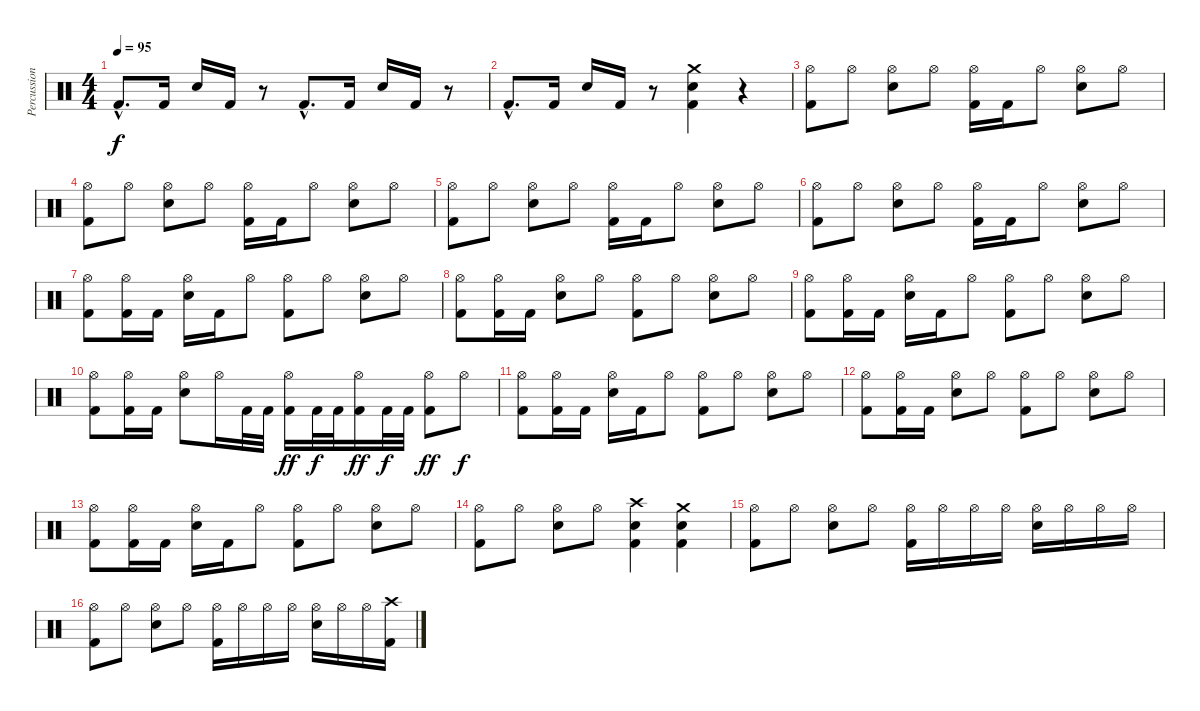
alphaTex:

\track ("Percussion" "Percussion") {instrument percussion}
\staff {score}
\articulation defaults
\ts (4 4)
\tempo 95
\clef neutral
\ks c "Kick (hit) 2"{hac}.8{d dy f} "Kick (hit) 2".16 "Snare (hit) 2".16 "Kick (hit) 2".16
r.8 "Kick (hit) 2"{hac}.8{d} "Kick (hit) 2".16 "Snare (hit) 2".16 "Kick (hit) 2".16 r.8 |
"Kick (hit) 2"{hac}.8{d} "Kick (hit) 2".16 "Snare (hit) 2".16 "Kick (hit) 2".16 r.8 ("Crash medium (hit)" "Snare (hit) 2" "Kick (hit) 2").4 r.4 |
("Hi-Hat (open)" "Kick (hit) 2").8 "Hi-Hat (open)".8 ("Hi-Hat (open)" "Snare (hit) 2").8 "Hi-Hat (open)".8 ("Hi-Hat (open)" "Kick (hit) 2").16 "Kick (hit) 2".16 "Hi-Hat (open)".8 ("Hi-Hat (open)" "Snare (hit) 2").8 "Hi-Hat (open)".8 |
("Hi-Hat (open)" "Kick (hit) 2").8 "Hi-Hat (open)".8 ("Hi-Hat (open)" "Snare (hit) 2").8 "Hi-Hat (open)".8 ("Hi-Hat (open)" "Kick (hit) 2").16 "Kick (hit) 2".16 "Hi-Hat (open)".8 ("Hi-Hat (open)" "Snare (hit) 2").8 "Hi-Hat (open)".8 |
("Hi-Hat (open)" "Kick (hit) 2").8 "Hi-Hat (open)".8 ("Hi-Hat (open)" "Snare (hit) 2").8 "Hi-Hat (open)".8 ("Hi-Hat (open)" "Kick (hit) 2").16 "Kick (hit) 2".16 "Hi-Hat (open)".8 ("Hi-Hat (open)" "Snare (hit) 2").8 "Hi-Hat (open)".8 |
("Hi-Hat (open)" "Kick (hit) 2").8 "Hi-Hat (open)".8 ("Hi-Hat (open)" "Snare (hit) 2").8 "Hi-Hat (open)".8 ("Hi-Hat (open)" "Kick (hit) 2").16 "Kick (hit) 2".16 "Hi-Hat (open)".8 ("Hi-Hat (open)" "Snare (hit) 2").8 "Hi-Hat (open)".8 |
("Hi-Hat (open)" "Kick (hit) 2").8 ("Hi-Hat (open)" "Kick (hit) 2").16 "Kick (hit) 2".16 ("Hi-Hat (open)" "Snare (hit) 2").16 "Kick (hit) 2".16 "Hi-Hat (open)".8 ("Hi-Hat (open)" "Kick (hit) 2").8 "Hi-Hat (open)".8 ("Hi-Hat (open)" "Snare (hit) 2").8 "Hi-Hat (open)".8 |
("Hi-Hat (open)" "Kick (hit) 2").8 ("Hi-Hat (open)" "Kick (hit) 2").16 "Kick (hit) 2".16 ("Hi-Hat (open)" "Snare (hit) 2").8 "Hi-Hat (open)".8 ("Hi-Hat (open)" "Kick (hit) 2").8 "Hi-Hat (open)".8 ("Hi-Hat (open)" "Snare (hit) 2").8 "Hi-Hat (open)".8 |
("Hi-Hat (open)" "Kick (hit) 2").8 ("Hi-Hat (open)" "Kick (hit) 2").16 "Kick (hit) 2".16 ("Hi-Hat (open)" "Snare (hit) 2").16 "Kick (hit) 2".16 "Hi-Hat (open)".8 ("Hi-Hat (open)" "Kick (hit) 2").8 "Hi-Hat (open)".8 ("Hi-Hat (open)" "Snare (hit) 2").8 "Hi-Hat (open)".8 |
("Hi-Hat (open)" "Kick (hit) 2").8 ("Hi-Hat (open)" "Kick (hit) 2").16 "Kick (hit) 2".16 ("Hi-Hat (open)" "Snare (hit) 2").8 "Hi-Hat (open)".16 "Kick (hit) 2".32 "Kick (hit) 2".32 ("Hi-Hat (open)" "Kick (hit) 2").16{dy ff} "Kick (hit) 2".32{dy f} "Kick (hit) 2".32 ("Hi-Hat (open)" "Kick (hit) 2").16{dy ff} "Kick (hit) 2".32{dy f} "Kick (hit) 2".32 ("Hi-Hat (open)" "Kick (hit) 2").8{dy ff} "Hi-Hat (open)".8{dy f} |
("Hi-Hat (open)" "Kick (hit) 2").8 ("Hi-Hat (open)" "Kick (hit) 2").16 "Kick (hit) 2".16 ("Hi-Hat (open)" "Snare (hit) 2").16 "Kick (hit) 2".16 "Hi-Hat (open)".8 ("Hi-Hat (open)" "Kick (hit) 2").8 "Hi-Hat (open)".8 ("Hi-Hat (open)" "Snare (hit) 2").8 "Hi-Hat (open)".8 |
("Hi-Hat (open)" "Kick (hit) 2").8 ("Hi-Hat (open)" "Kick (hit) 2").16 "Kick (hit) 2".16 ("Hi-Hat (open)" "Snare (hit) 2").8 "Hi-Hat (open)".8 ("Hi-Hat (open)" "Kick (hit) 2").8 "Hi-Hat (open)".8 ("Hi-Hat (open)" "Snare (hit) 2").8 "Hi-Hat (open)".8 |
("Hi-Hat (open)" "Kick (hit) 2").8 ("Hi-Hat (open)" "Kick (hit) 2").16 "Kick (hit) 2".16 ("Hi-Hat (open)" "Snare (hit) 2").16 "Kick (hit) 2".16 "Hi-Hat (open)".8 ("Hi-Hat (open)" "Kick (hit) 2").8 "Hi-Hat (open)".8 ("Hi-Hat (open)" "Snare (hit) 2").8 "Hi-Hat (open)".8 |
("Hi-Hat (open)" "Kick (hit) 2").8 "Hi-Hat (open)".8 ("Hi-Hat (open)" "Snare (hit) 2").8 "Hi-Hat (open)".8 ("Crash high (hit)" "Snare (hit) 2" "Kick (hit) 2").4 ("Crash medium (hit)" "Snare (hit) 2" "Kick (hit) 2").4 |
("Hi-Hat (open)" "Kick (hit) 2").8 "Hi-Hat (open)".8 ("Hi-Hat (open)" "Snare (hit) 2").8 "Hi-Hat (open)".8 ("Hi-Hat (open)" "Kick (hit) 2").16 "Hi-Hat (open)".16 "Hi-Hat (open)".16 "Hi-Hat (open)".16 ("Hi-Hat (open)" "Snare (hit) 2").16 "Hi-Hat (open)".16 "Hi-Hat (open)".16 "Hi-Hat (open)".16 |
("Hi-Hat (open)" "Kick (hit) 2").8 "Hi-Hat (open)".8 ("Hi-Hat (open)" "Snare (hit) 2").8 "Hi-Hat (open)".8 ("Hi-Hat (open)" "Kick (hit) 2").16 "Hi-Hat (open)".16 "Hi-Hat (open)".16 "Hi-Hat (open)".16 ("Hi-Hat (open)" "Snare (hit) 2").16 "Hi-Hat (open)".16 "Hi-Hat (open)".16 ("Crash high (hit)" "Kick (hit) 2").16
